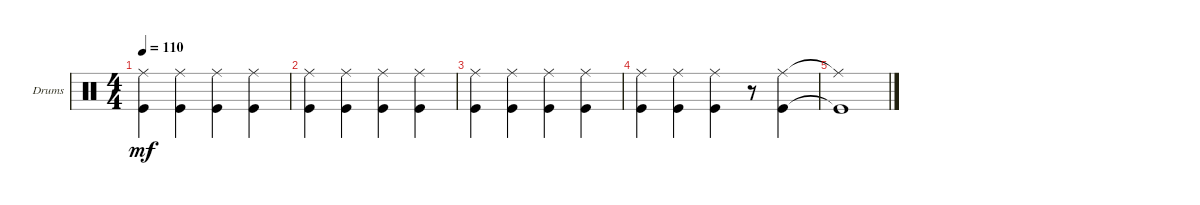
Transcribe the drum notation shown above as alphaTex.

\defaultSystemsLayout 4
\bracketExtendMode groupsimilarinstruments
\firstSystemTrackNameOrientation horizontal
\otherSystemsTrackNameOrientation horizontal
\track ("Drums" "Drums") {instrument percussion}
\staff {score}
\articulation defaults
\ts (4 4)
\tempo 110
\clef neutral
\scale
0.333333
\ks c
("Ride (middle)" "Kick (hit)").4{dy mf} ("Ride (middle)" "Kick (hit)").4 ("Ride (middle)" "Kick (hit)").4 ("Ride (middle)" "Kick (hit)").4 |
\scale
0.333333 ("Ride (middle)" "Kick (hit)").4 ("Ride (middle)" "Kick (hit)").4 ("Ride (middle)" "Kick (hit)").4 ("Ride (middle)" "Kick (hit)").4 |
("Ride (middle)" "Kick (hit)").4 ("Ride (middle)" "Kick (hit)").4 ("Ride (middle)" "Kick (hit)").4 ("Ride (middle)" "Kick (hit)").4 |
("Ride (middle)" "Kick (hit)").4 ("Ride (middle)" "Kick (hit)").4 ("Ride (middle)" "Kick (hit)").4 r.8 ("Ride (middle)" "Kick (hit)").4 |
("Ride (middle)"{t} "Kick (hit)"{t}).1
